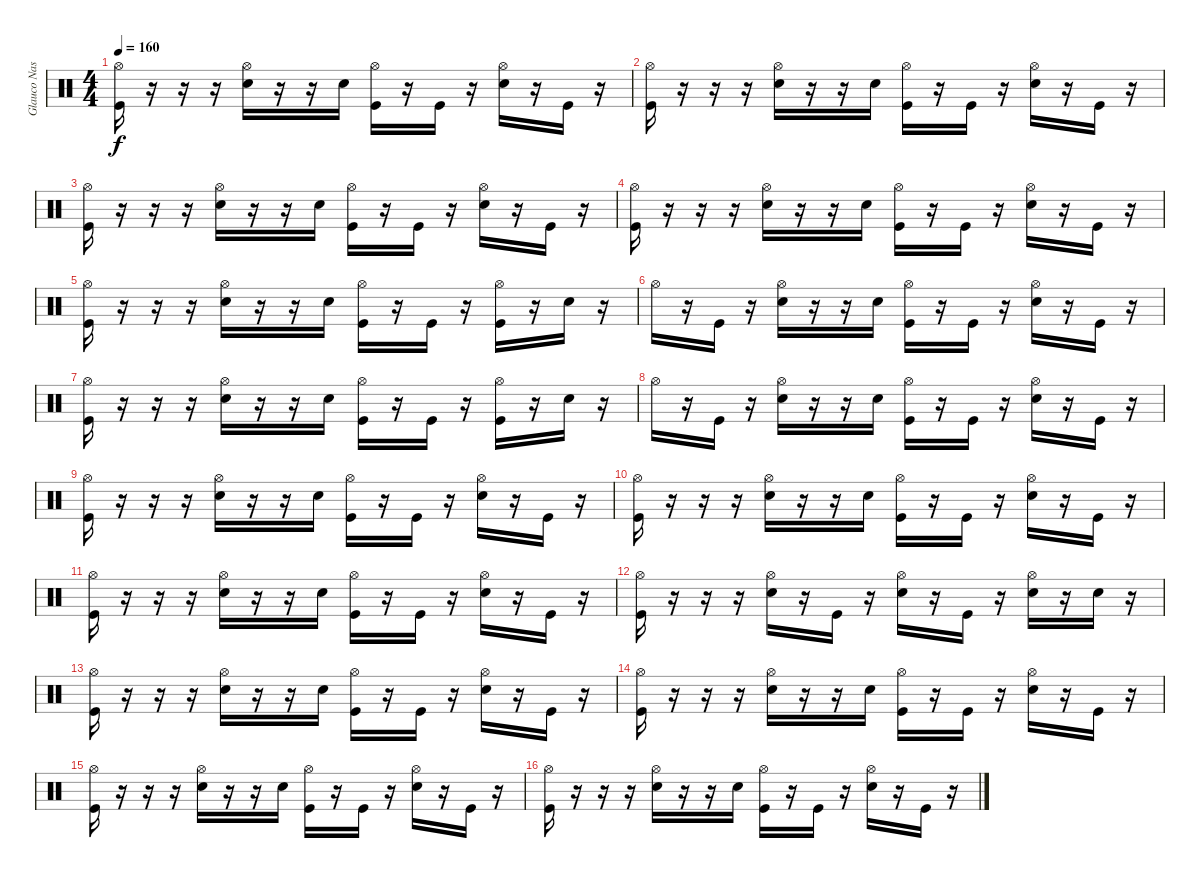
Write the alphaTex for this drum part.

\track ("Glauco Nastácia" "Glauco Nas") {instrument percussion}
\staff {score}
\articulation defaults
\ts (4 4)
\tempo 160
\clef neutral
\ks c
("Hi-Hat (open)" "Kick (hit)").16{dy f} r.16 r.16 r.16 ("Hi-Hat (open)" "Electric Snare (hit)").16 r.16 r.16 "Electric Snare (hit)".16 ("Hi-Hat (open)" "Kick (hit)").16 r.16 "Kick (hit)".16 r.16 ("Hi-Hat (open)" "Electric Snare (hit)").16 r.16 "Kick (hit)".16 r.16 |
("Hi-Hat (open)" "Kick (hit)").16 r.16 r.16 r.16 ("Hi-Hat (open)" "Electric Snare (hit)").16 r.16 r.16 "Electric Snare (hit)".16 ("Hi-Hat (open)" "Kick (hit)").16 r.16 "Kick (hit)".16 r.16 ("Hi-Hat (open)" "Electric Snare (hit)").16 r.16 "Kick (hit)".16 r.16 |
("Hi-Hat (open)" "Kick (hit)").16 r.16 r.16 r.16 ("Hi-Hat (open)" "Electric Snare (hit)").16 r.16 r.16 "Electric Snare (hit)".16 ("Hi-Hat (open)" "Kick (hit)").16 r.16 "Kick (hit)".16 r.16 ("Hi-Hat (open)" "Electric Snare (hit)").16 r.16 "Kick (hit)".16 r.16 |
("Hi-Hat (open)" "Kick (hit)").16 r.16 r.16 r.16 ("Hi-Hat (open)" "Electric Snare (hit)").16 r.16 r.16 "Electric Snare (hit)".16 ("Hi-Hat (open)" "Kick (hit)").16 r.16 "Kick (hit)".16 r.16 ("Hi-Hat (open)" "Electric Snare (hit)").16 r.16 "Kick (hit)".16 r.16 |
("Hi-Hat (open)" "Kick (hit)").16 r.16 r.16 r.16 ("Hi-Hat (open)" "Electric Snare (hit)").16 r.16 r.16 "Electric Snare (hit)".16 ("Hi-Hat (open)" "Kick (hit)").16 r.16 "Kick (hit)".16 r.16 ("Hi-Hat (open)" "Kick (hit)").16 r.16 "Electric Snare (hit)".16 r.16 |
"Hi-Hat (open)".16 r.16 "Kick (hit)".16 r.16 ("Hi-Hat (open)" "Electric Snare (hit)").16 r.16 r.16 "Electric Snare (hit)".16 ("Hi-Hat (open)" "Kick (hit)").16 r.16 "Kick (hit)".16 r.16 ("Hi-Hat (open)" "Electric Snare (hit)").16 r.16 "Kick (hit)".16 r.16 |
("Hi-Hat (open)" "Kick (hit)").16 r.16 r.16 r.16 ("Hi-Hat (open)" "Electric Snare (hit)").16 r.16 r.16 "Electric Snare (hit)".16 ("Hi-Hat (open)" "Kick (hit)").16 r.16 "Kick (hit)".16 r.16 ("Hi-Hat (open)" "Kick (hit)").16 r.16 "Electric Snare (hit)".16 r.16 |
"Hi-Hat (open)".16 r.16 "Kick (hit)".16 r.16 ("Hi-Hat (open)" "Electric Snare (hit)").16 r.16 r.16 "Electric Snare (hit)".16 ("Hi-Hat (open)" "Kick (hit)").16 r.16 "Kick (hit)".16 r.16 ("Hi-Hat (open)" "Electric Snare (hit)").16 r.16 "Kick (hit)".16 r.16 |
("Hi-Hat (open)" "Kick (hit)").16 r.16 r.16 r.16 ("Hi-Hat (open)" "Electric Snare (hit)").16 r.16 r.16 "Electric Snare (hit)".16 ("Hi-Hat (open)" "Kick (hit)").16 r.16 "Kick (hit)".16 r.16 ("Hi-Hat (open)" "Electric Snare (hit)").16 r.16 "Kick (hit)".16 r.16 |
("Hi-Hat (open)" "Kick (hit)").16 r.16 r.16 r.16 ("Hi-Hat (open)" "Electric Snare (hit)").16 r.16 r.16 "Electric Snare (hit)".16 ("Hi-Hat (open)" "Kick (hit)").16 r.16 "Kick (hit)".16 r.16 ("Hi-Hat (open)" "Electric Snare (hit)").16 r.16 "Kick (hit)".16 r.16 |
("Hi-Hat (open)" "Kick (hit)").16 r.16 r.16 r.16 ("Hi-Hat (open)" "Electric Snare (hit)").16 r.16 r.16 "Electric Snare (hit)".16 ("Hi-Hat (open)" "Kick (hit)").16 r.16 "Kick (hit)".16 r.16 ("Hi-Hat (open)" "Electric Snare (hit)").16 r.16 "Kick (hit)".16 r.16 |
("Hi-Hat (open)" "Kick (hit)").16 r.16 r.16 r.16 ("Hi-Hat (open)" "Electric Snare (hit)").16 r.16 "Kick (hit)".16 r.16 ("Hi-Hat (open)" "Electric Snare (hit)").16 r.16 "Kick (hit)".16 r.16 ("Hi-Hat (open)" "Electric Snare (hit)").16 r.16 "Electric Snare (hit)".16 r.16 |
("Hi-Hat (open)" "Kick (hit)").16 r.16 r.16 r.16 ("Hi-Hat (open)" "Electric Snare (hit)").16 r.16 r.16 "Electric Snare (hit)".16 ("Hi-Hat (open)" "Kick (hit)").16 r.16 "Kick (hit)".16 r.16 ("Hi-Hat (open)" "Electric Snare (hit)").16 r.16 "Kick (hit)".16 r.16 |
("Hi-Hat (open)" "Kick (hit)").16 r.16 r.16 r.16 ("Hi-Hat (open)" "Electric Snare (hit)").16 r.16 r.16 "Electric Snare (hit)".16 ("Hi-Hat (open)" "Kick (hit)").16 r.16 "Kick (hit)".16 r.16 ("Hi-Hat (open)" "Electric Snare (hit)").16 r.16 "Kick (hit)".16 r.16 |
("Hi-Hat (open)" "Kick (hit)").16 r.16 r.16 r.16 ("Hi-Hat (open)" "Electric Snare (hit)").16 r.16 r.16 "Electric Snare (hit)".16 ("Hi-Hat (open)" "Kick (hit)").16 r.16 "Kick (hit)".16 r.16 ("Hi-Hat (open)" "Electric Snare (hit)").16 r.16 "Kick (hit)".16 r.16 |
("Hi-Hat (open)" "Kick (hit)").16 r.16 r.16 r.16 ("Hi-Hat (open)" "Electric Snare (hit)").16 r.16 r.16 "Electric Snare (hit)".16 ("Hi-Hat (open)" "Kick (hit)").16 r.16 "Kick (hit)".16 r.16 ("Hi-Hat (open)" "Electric Snare (hit)").16 r.16 "Kick (hit)".16 r.16
